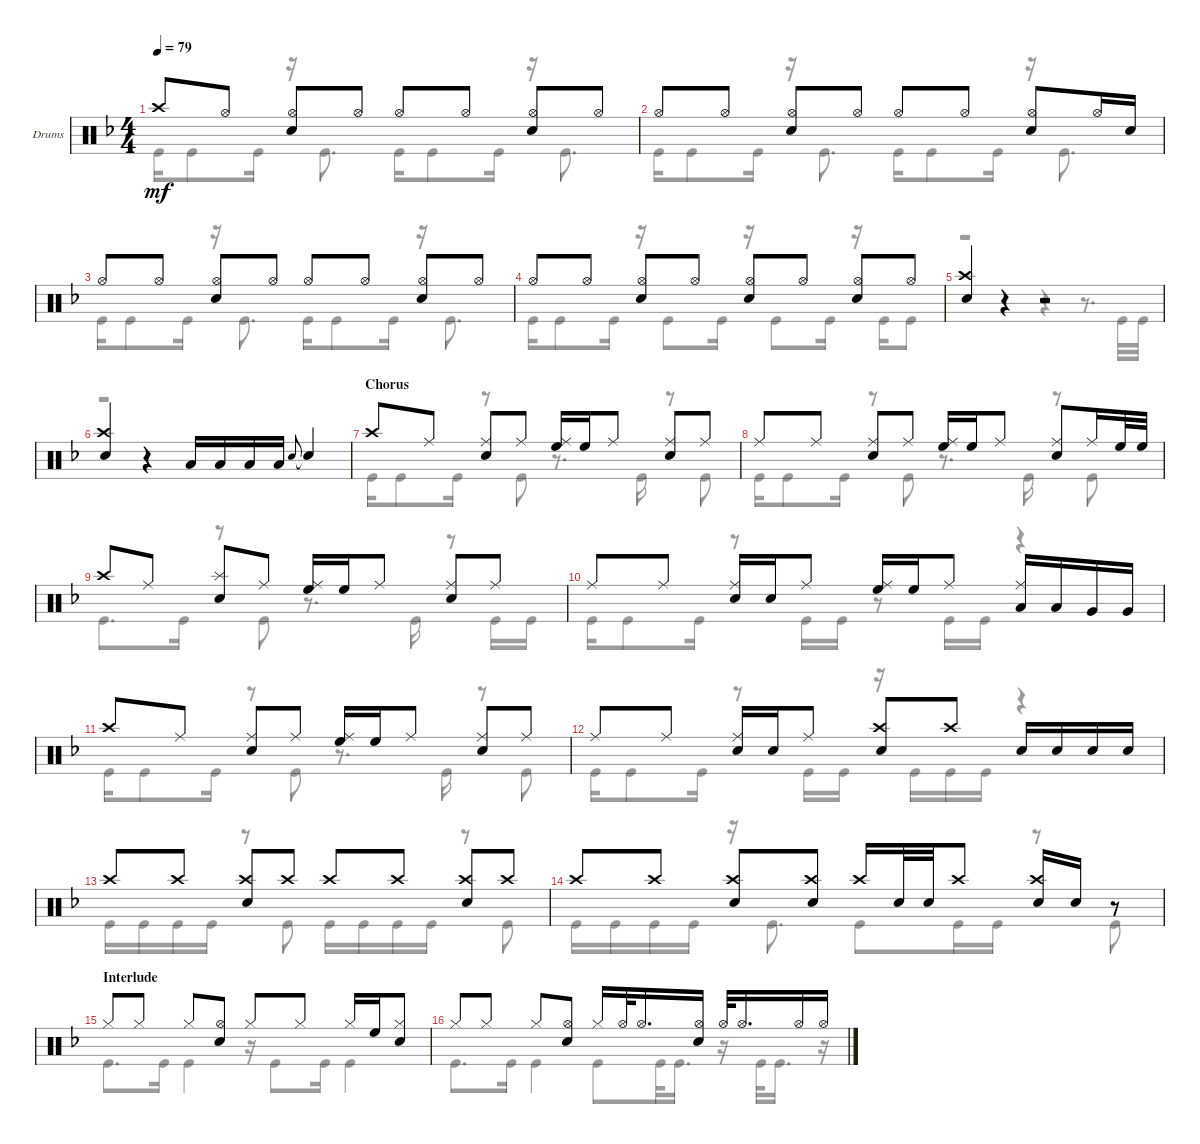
\defaultSystemsLayout 4
\bracketExtendMode groupsimilarinstruments
\firstSystemTrackNameOrientation horizontal
\otherSystemsTrackNameOrientation horizontal
\track ("Drums" "Drums") {instrument percussion}
\staff {score}
\articulation defaults
\voice
\ts (4 4)
\tempo 79
\clef neutral
\scale
1.04161
\ks f "Crash high (hit)".8{dy mf} "Hi-Hat (open)".8
("Hi-Hat (open)" "Snare (hit) 2").8 "Hi-Hat (open)".8 "Hi-Hat (open)".8 "Hi-Hat (open)".8 ("Hi-Hat (open)" "Snare (hit) 2").8 "Hi-Hat (open)".8 |
\scale
0.958386 "Hi-Hat (open)".8 "Hi-Hat (open)".8 ("Hi-Hat (open)" "Snare (hit) 2").8 "Hi-Hat (open)".8 "Hi-Hat (open)".8 "Hi-Hat (open)".8 ("Hi-Hat (open)" "Snare (hit) 2").8 "Hi-Hat (open)".16 "Snare (hit) 2".16 |
\scale
1.04161 "Hi-Hat (open)".8 "Hi-Hat (open)".8 ("Hi-Hat (open)" "Snare (hit) 2").8 "Hi-Hat (open)".8 "Hi-Hat (open)".8 "Hi-Hat (open)".8 ("Hi-Hat (open)" "Snare (hit) 2").8 "Hi-Hat (open)".8 |
\scale
0.958386 "Hi-Hat (open)".8 "Hi-Hat (open)".8 ("Hi-Hat (open)" "Snare (hit) 2").8 "Hi-Hat (open)".8 ("Hi-Hat (open)" "Snare (hit) 2").8 "Hi-Hat (open)".8 ("Hi-Hat (open)" "Snare (hit) 2").8 "Hi-Hat (open)".8 |
\scale
1.04161 ("Crash high (hit)" "Snare (hit) 2").4 r.4 r.2 |
\scale
0.958386 ("Snare (hit) 2" "Crash high (hit)").4 r.4 "Low Tom (hit)".16 "Low Tom (hit)".16 "Low Tom (hit)".16 "Low Tom (hit)".16 "Snare (hit) 2".8{gr onbeat} "Snare (hit) 2"{t}.4 |
\section ("" "Chorus")
\scale
1.04161 "Crash high (hit)".8 "Ride (middle)".8 ("Ride (middle)" "Snare (hit) 2").8 "Ride (middle)".8 ("Ride (middle)" "High Floor Tom (hit)").16 "High Floor Tom (hit)".16 "Ride (middle)".8 ("Ride (middle)" "Snare (hit) 2").8 "Ride (middle)".8 |
\scale
0.958386 "Ride (middle)".8 "Ride (middle)".8 ("Ride (middle)" "Snare (hit) 2").8 "Ride (middle)".8 ("Ride (middle)" "High Floor Tom (hit)").16 "High Floor Tom (hit)".16 "Ride (middle)".8 ("Ride (middle)" "Snare (hit) 2").8 "Ride (middle)".16 "High Floor Tom (hit)".32 "High Floor Tom (hit)".32 |
\scale
1.04161 "Crash high (hit)".8 "Ride (middle)".8 ("Snare (hit) 2" "Splash (hit)").8 "Ride (middle)".8 ("Ride (middle)" "High Floor Tom (hit)").16 "High Floor Tom (hit)".16 "Ride (middle)".8 ("Ride (middle)" "Snare (hit) 2").8 "Ride (middle)".8 |
\scale
0.958386 "Ride (middle)".8 "Ride (middle)".8 ("Ride (middle)" "Snare (hit) 2").16 "Snare (hit) 2".16 "Ride (middle)".8 ("Ride (middle)" "High Floor Tom (hit)").16 "High Floor Tom (hit)".16 "Ride (middle)".8 ("Ride (middle)" "Low Tom (hit)").16 "Low Tom (hit)".16 "Very Low Tom (hit)".16 "Very Low Tom (hit)".16 |
\scale
1.04161 "Crash high (hit)".8 "Ride (middle)".8 ("Ride (middle)" "Snare (hit) 2").8 "Ride (middle)".8 ("Ride (middle)" "High Floor Tom (hit)").16 "High Floor Tom (hit)".16 "Ride (middle)".8 ("Ride (middle)" "Snare (hit) 2").8 "Ride (middle)".8 |
\scale
0.958386 "Ride (middle)".8 "Ride (middle)".8 ("Ride (middle)" "Snare (hit) 2").16 "Snare (hit) 2".16 "Ride (middle)".8 ("Crash high (hit)" "Snare (hit) 2").8 "Crash high (hit)".8 "Snare (hit) 2".16 "Snare (hit) 2".16 "Snare (hit) 2".16 "Snare (hit) 2".16 |
\scale
1.04161 "Crash high (hit)".8 "Crash high (hit)".8 ("Crash high (hit)" "Snare (hit) 2").8 "Crash high (hit)".8 "Crash high (hit)".8 "Crash high (hit)".8 ("Crash high (hit)" "Snare (hit) 2").8 "Crash high (hit)".8 |
\scale
0.958386 "Crash high (hit)".8 "Crash high (hit)".8 ("Crash high (hit)" "Snare (hit) 2").8 ("Crash high (hit)" "Snare (hit) 2").8 "Crash high (hit)".16 "Snare (hit) 2".32 "Snare (hit) 2".32 "Crash high (hit)".8 ("Crash high (hit)" "Snare (hit) 2").16 "Snare (hit) 2".16 r.8 |
\section ("" "Interlude")
\scale
1.04161 "Hi-Hat (closed)".8 "Hi-Hat (closed)".8 "Hi-Hat (closed)".8 ("Hi-Hat (open)" "Snare (hit) 2").8 "Hi-Hat (closed)".8 "Hi-Hat (closed)".8 "Hi-Hat (closed)".16 "High Floor Tom (hit)".16 ("Hi-Hat (closed)" "Snare (hit) 2").8 |
\scale
0.958386 "Hi-Hat (closed)".8 "Hi-Hat (closed)".8 "Hi-Hat (closed)".8 ("Hi-Hat (open)" "Snare (hit) 2").8 "Hi-Hat (closed)".16 "Hi-Hat (open)".32 "Hi-Hat (open)".16{d} ("Hi-Hat (open)" "Snare (hit) 2").16 "Hi-Hat (open)".32 "Hi-Hat (open)".16{d} "Hi-Hat (open)".16 "Hi-Hat (open)".16
\voice
\clef neutral
\ottava regular
\simile none
\scale
1.04161
\ks f "Kick (hit)".16{dy mf} "Kick (hit)".8 "Kick (hit)".16
r.16 "Kick (hit)".8{d} "Kick (hit)".16 "Kick (hit)".8 "Kick (hit)".16 r.16 "Kick (hit)".8{d} |
\scale
0.958386 "Kick (hit)".16 "Kick (hit)".8 "Kick (hit)".16 r.16 "Kick (hit)".8{d} "Kick (hit)".16 "Kick (hit)".8 "Kick (hit)".16 r.16 "Kick (hit)".8{d} |
\scale
1.04161 "Kick (hit)".16 "Kick (hit)".8 "Kick (hit)".16 r.16 "Kick (hit)".8{d} "Kick (hit)".16 "Kick (hit)".8 "Kick (hit)".16 r.16 "Kick (hit)".8{d} |
\scale
0.958386 "Kick (hit)".16 "Kick (hit)".8 "Kick (hit)".16 r.16 "Kick (hit)".8 "Kick (hit)".16 r.16 "Kick (hit)".8 "Kick (hit)".16 r.16 "Kick (hit)".16 "Kick (hit)".8 |
\scale
1.04161 r.2 r.4 r.8{d} "Kick (hit)".32 "Kick (hit)".32 |
\scale
0.958386 r.1 |
\scale
1.04161 "Kick (hit)".16 "Kick (hit)".8 "Kick (hit)".16 r.8 "Kick (hit)".8 r.8{d} "Kick (hit)".16 r.8 "Kick (hit)".8 |
\scale
0.958386 "Kick (hit)".16 "Kick (hit)".8 "Kick (hit)".16 r.8 "Kick (hit)".8 r.8{d} "Kick (hit)".16 r.8 "Kick (hit)".8 |
\scale
1.04161 "Kick (hit)".8{d} "Kick (hit)".16 r.8 "Kick (hit)".8 r.8{d} "Kick (hit)".16 r.8 "Kick (hit)".16 "Kick (hit)".16 |
\scale
0.958386 "Kick (hit)".16 "Kick (hit)".8 "Kick (hit)".16 r.8 "Kick (hit)".16 "Kick (hit)".16 r.8 "Kick (hit)".16 "Kick (hit)".16 r.4 |
\scale
1.04161 "Kick (hit)".16 "Kick (hit)".8 "Kick (hit)".16 r.8 "Kick (hit)".8 r.8{d} "Kick (hit)".16 r.8 "Kick (hit)".8 |
\scale
0.958386 "Kick (hit)".16 "Kick (hit)".8 "Kick (hit)".16 r.8 "Kick (hit)".16 "Kick (hit)".16 r.16 "Kick (hit)".16 "Kick (hit)".16 "Kick (hit)".16 r.4 |
\scale
1.04161 "Kick (hit)".16 "Kick (hit)".16 "Kick (hit)".16 "Kick (hit)".16 r.8 "Kick (hit)".8 "Kick (hit)".16 "Kick (hit)".16 "Kick (hit)".16 "Kick (hit)".16 r.8 "Kick (hit)".8 |
\scale
0.958386 "Kick (hit)".16 "Kick (hit)".16 "Kick (hit)".16 "Kick (hit)".16 r.16 "Kick (hit)".8{d} "Kick (hit)".8 "Kick (hit)".16 "Kick (hit)".16 r.8 "Kick (hit)".8 |
\scale
1.04161 "Kick (hit)".8{d} "Kick (hit)".16 "Kick (hit)".4 r.16 "Kick (hit)".8 "Kick (hit)".16 "Kick (hit)".4 |
\scale
0.958386 "Kick (hit)".8{d} "Kick (hit)".16 "Kick (hit)".4 "Kick (hit)".8 "Kick (hit)".32 "Kick (hit)".16{d} r.16 "Kick (hit)".32 "Kick (hit)".16{d} r.16
